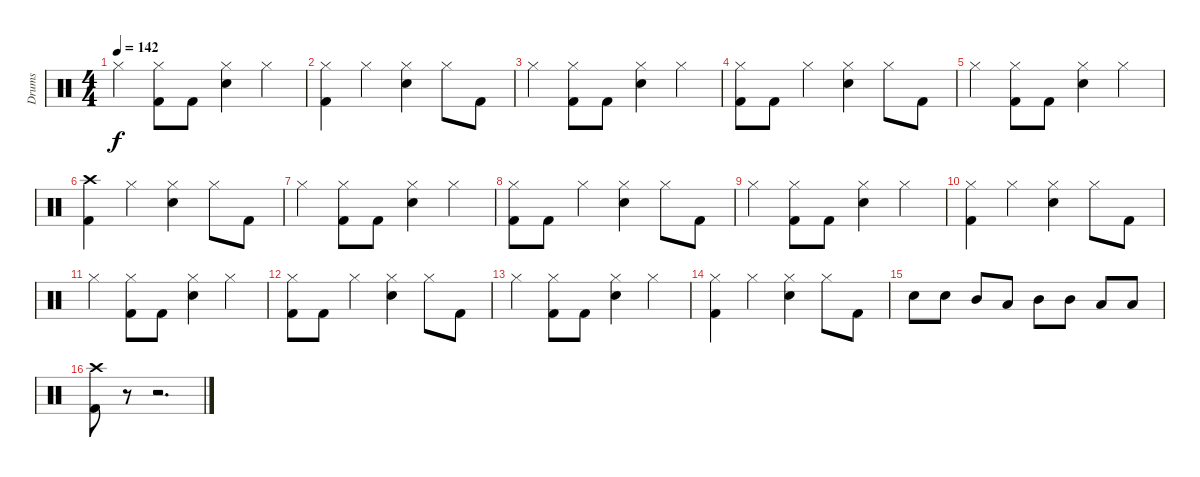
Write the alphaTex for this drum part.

\track ("Drums" "Drums") {instrument percussion}
\staff {score}
\articulation defaults
\ts (4 4)
\tempo 142
\clef neutral
\ks c "Hi-Hat (closed)".4{dy f}
("Hi-Hat (closed)" "Kick (hit) 2").8 "Kick (hit) 2".8 ("Hi-Hat (closed)" "Electric Snare (hit)").4 "Hi-Hat (closed)".4 |
("Hi-Hat (closed)" "Kick (hit) 2").4 "Hi-Hat (closed)".4 ("Hi-Hat (closed)" "Electric Snare (hit)").4 "Hi-Hat (closed)".8 "Kick (hit) 2".8 |
"Hi-Hat (closed)".4 ("Hi-Hat (closed)" "Kick (hit) 2").8 "Kick (hit) 2".8 ("Hi-Hat (closed)" "Electric Snare (hit)").4 "Hi-Hat (closed)".4 |
("Hi-Hat (closed)" "Kick (hit) 2").8 "Kick (hit) 2".8 "Hi-Hat (closed)".4 ("Hi-Hat (closed)" "Electric Snare (hit)").4 "Hi-Hat (closed)".8 "Kick (hit) 2".8 |
"Hi-Hat (closed)".4 ("Hi-Hat (closed)" "Kick (hit) 2").8 "Kick (hit) 2".8 ("Hi-Hat (closed)" "Electric Snare (hit)").4 "Hi-Hat (closed)".4 |
("Crash high (hit)" "Kick (hit) 2").4 "Hi-Hat (closed)".4 ("Hi-Hat (closed)" "Electric Snare (hit)").4 "Hi-Hat (closed)".8 "Kick (hit) 2".8 |
"Hi-Hat (closed)".4 ("Hi-Hat (closed)" "Kick (hit) 2").8 "Kick (hit) 2".8 ("Hi-Hat (closed)" "Electric Snare (hit)").4 "Hi-Hat (closed)".4 |
("Hi-Hat (closed)" "Kick (hit) 2").8 "Kick (hit) 2".8 "Hi-Hat (closed)".4 ("Hi-Hat (closed)" "Electric Snare (hit)").4 "Hi-Hat (closed)".8 "Kick (hit) 2".8 |
"Hi-Hat (closed)".4 ("Hi-Hat (closed)" "Kick (hit) 2").8 "Kick (hit) 2".8 ("Hi-Hat (closed)" "Electric Snare (hit)").4 "Hi-Hat (closed)".4 |
("Hi-Hat (closed)" "Kick (hit) 2").4 "Hi-Hat (closed)".4 ("Hi-Hat (closed)" "Electric Snare (hit)").4 "Hi-Hat (closed)".8 "Kick (hit) 2".8 |
"Hi-Hat (closed)".4 ("Hi-Hat (closed)" "Kick (hit) 2").8 "Kick (hit) 2".8 ("Hi-Hat (closed)" "Electric Snare (hit)").4 "Hi-Hat (closed)".4 |
("Hi-Hat (closed)" "Kick (hit) 2").8 "Kick (hit) 2".8 "Hi-Hat (closed)".4 ("Hi-Hat (closed)" "Electric Snare (hit)").4 "Hi-Hat (closed)".8 "Kick (hit) 2".8 |
"Hi-Hat (closed)".4 ("Hi-Hat (closed)" "Kick (hit) 2").8 "Kick (hit) 2".8 ("Hi-Hat (closed)" "Electric Snare (hit)").4 "Hi-Hat (closed)".4 |
("Hi-Hat (closed)" "Kick (hit) 2").4 "Hi-Hat (closed)".4 ("Hi-Hat (closed)" "Electric Snare (hit)").4 "Hi-Hat (closed)".8 "Kick (hit) 2".8 |
"Electric Snare (hit)".8 "Electric Snare (hit)".8 "Mid Tom (hit)".8 "Low Tom (hit)".8 "Mid Tom (hit)".8 "Mid Tom (hit)".8 "Low Tom (hit)".8 "Low Tom (hit)".8 |
("Crash high (hit)" "Kick (hit) 2").8 r.8 r.2{d}
